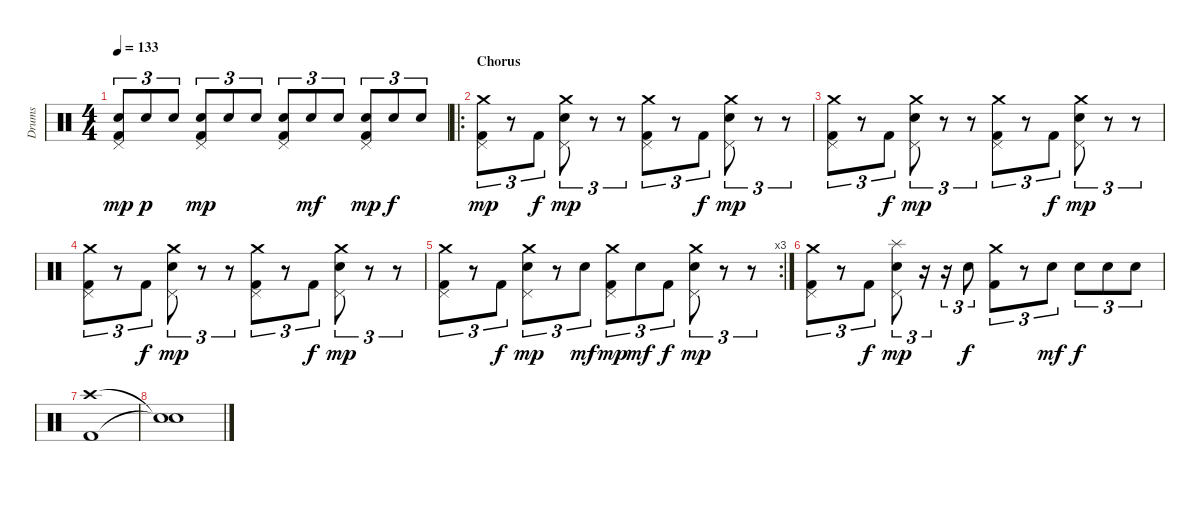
\track ("Drums" "Drums") {instrument percussion}
\staff {score}
\articulation defaults
\ts (4 4)
\tempo 133
\clef neutral
\ks c
("Electric Snare (hit)" "Pedal Hi-Hat (hit)" "Kick (hit) 2").8{tu (3 2) dy mp} "Electric Snare (hit)".8{tu (3 2) dy p} "Electric Snare (hit)".8{tu (3 2)} ("Electric Snare (hit)" "Pedal Hi-Hat (hit)" "Kick (hit) 2").8{tu (3 2) dy mp} "Electric Snare (hit)".8{tu (3 2)} "Electric Snare (hit)".8{tu (3 2)} ("Electric Snare (hit)" "Pedal Hi-Hat (hit)" "Kick (hit) 2").8{tu (3 2)} "Electric Snare (hit)".8{tu (3 2) dy mf} "Electric Snare (hit)".8{tu (3 2)} ("Electric Snare (hit)" "Pedal Hi-Hat (hit)" "Kick (hit) 2").8{tu (3 2) dy mp} "Electric Snare (hit)".8{tu (3 2) dy f} "Electric Snare (hit)".8{tu (3 2)} |
\ro
\section ("" "Chorus")
("Crash medium (hit)" "Pedal Hi-Hat (hit)" "Kick (hit) 2").8{tu (3 2) dy mp} r.8{tu (3 2)} "Kick (hit) 2".8{tu (3 2) dy f} ("Crash medium (hit)" "Electric Snare (hit)" "Pedal Hi-Hat (hit)").8{tu (3 2) dy mp} r.8{tu (3 2)} r.8{tu (3 2)} ("Crash medium (hit)" "Pedal Hi-Hat (hit)" "Kick (hit) 2").8{tu (3 2)} r.8{tu (3 2)} "Kick (hit) 2".8{tu (3 2) dy f} ("Crash medium (hit)" "Electric Snare (hit)" "Pedal Hi-Hat (hit)").8{tu (3 2) dy mp} r.8{tu (3 2)} r.8{tu (3 2)} |
("Crash medium (hit)" "Pedal Hi-Hat (hit)" "Kick (hit) 2").8{tu (3 2)} r.8{tu (3 2)} "Kick (hit) 2".8{tu (3 2) dy f} ("Crash medium (hit)" "Electric Snare (hit)" "Pedal Hi-Hat (hit)").8{tu (3 2) dy mp} r.8{tu (3 2)} r.8{tu (3 2)} ("Crash medium (hit)" "Pedal Hi-Hat (hit)" "Kick (hit) 2").8{tu (3 2)} r.8{tu (3 2)} "Kick (hit) 2".8{tu (3 2) dy f} ("Crash medium (hit)" "Electric Snare (hit)" "Pedal Hi-Hat (hit)").8{tu (3 2) dy mp} r.8{tu (3 2)} r.8{tu (3 2)} |
("Crash medium (hit)" "Pedal Hi-Hat (hit)" "Kick (hit) 2").8{tu (3 2)} r.8{tu (3 2)} "Kick (hit) 2".8{tu (3 2) dy f} ("Crash medium (hit)" "Electric Snare (hit)" "Pedal Hi-Hat (hit)").8{tu (3 2) dy mp} r.8{tu (3 2)} r.8{tu (3 2)} ("Crash medium (hit)" "Pedal Hi-Hat (hit)" "Kick (hit) 2").8{tu (3 2)} r.8{tu (3 2)} "Kick (hit) 2".8{tu (3 2) dy f} ("Crash medium (hit)" "Electric Snare (hit)" "Pedal Hi-Hat (hit)").8{tu (3 2) dy mp} r.8{tu (3 2)} r.8{tu (3 2)} |
\rc 3
("Crash medium (hit)" "Pedal Hi-Hat (hit)" "Kick (hit) 2").8{tu (3 2)} r.8{tu (3 2)} "Kick (hit) 2".8{tu (3 2) dy f} ("Crash medium (hit)" "Electric Snare (hit)" "Pedal Hi-Hat (hit)").8{tu (3 2) dy mp} r.8{tu (3 2)} "Electric Snare (hit)".8{tu (3 2) dy mf} ("Crash medium (hit)" "Pedal Hi-Hat (hit)" "Kick (hit) 2").8{tu (3 2) dy mp} "Electric Snare (hit)".8{tu (3 2) dy mf} "Kick (hit) 2".8{tu (3 2) dy f} ("Crash medium (hit)" "Electric Snare (hit)" "Pedal Hi-Hat (hit)").8{tu (3 2) dy mp} r.8{tu (3 2)} r.8{tu (3 2)} |
("Crash medium (hit)" "Pedal Hi-Hat (hit)" "Kick (hit) 2").8{tu (3 2)} r.8{tu (3 2)} "Kick (hit) 2".8{tu (3 2) dy f} ("Splash (hit)" "Electric Snare (hit)" "Pedal Hi-Hat (hit)").8{tu (3 2) dy mp} r.16{tu (3 2)} r.16{tu (3 2)} "Electric Snare (hit)".8{tu (3 2) dy f} ("Crash medium (hit)" "Kick (hit) 2").8{tu (3 2)} r.8{tu (3 2)} "Electric Snare (hit)".8{tu (3 2) dy mf} "Electric Snare (hit)".8{tu (3 2) dy f} "Electric Snare (hit)".8{tu (3 2)} "Electric Snare (hit)".8{tu (3 2)} |
("Crash high (hit)" "Kick (hit) 2").1 |
("Snare (hit)"{t} "Snare (hit)"{t}).1
